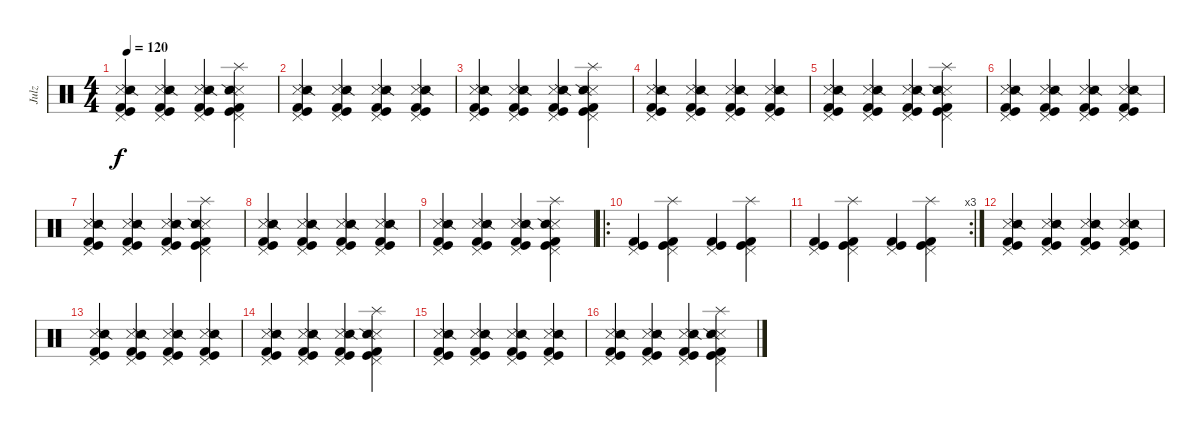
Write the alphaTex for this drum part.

\track ("Julz" "Julz") {instrument percussion}
\staff {score}
\articulation defaults
\ts (4 4)
\tempo 120
\clef neutral
\ks c
("Metronome (hit)" "Snare (side stick) 2" "Pedal Hi-Hat (hit)" "Kick (hit)" "Kick (hit) 2").4{dy f} ("Metronome (hit)" "Snare (side stick) 2" "Pedal Hi-Hat (hit)" "Kick (hit)" "Kick (hit) 2").4 ("Metronome (hit)" "Snare (side stick) 2" "Pedal Hi-Hat (hit)" "Kick (hit)" "Kick (hit) 2").4 ("Splash (hit)" "Metronome (hit)" "Snare (side stick) 2" "Pedal Hi-Hat (hit)" "Kick (hit)" "Kick (hit) 2").4 |
("Metronome (hit)" "Snare (side stick) 2" "Pedal Hi-Hat (hit)" "Kick (hit)" "Kick (hit) 2").4 ("Metronome (hit)" "Snare (side stick) 2" "Pedal Hi-Hat (hit)" "Kick (hit)" "Kick (hit) 2").4 ("Metronome (hit)" "Snare (side stick) 2" "Pedal Hi-Hat (hit)" "Kick (hit)" "Kick (hit) 2").4 ("Metronome (hit)" "Snare (side stick) 2" "Pedal Hi-Hat (hit)" "Kick (hit)" "Kick (hit) 2").4 |
("Metronome (hit)" "Snare (side stick) 2" "Pedal Hi-Hat (hit)" "Kick (hit)" "Kick (hit) 2").4 ("Metronome (hit)" "Snare (side stick) 2" "Pedal Hi-Hat (hit)" "Kick (hit)" "Kick (hit) 2").4 ("Metronome (hit)" "Snare (side stick) 2" "Pedal Hi-Hat (hit)" "Kick (hit)" "Kick (hit) 2").4 ("Splash (hit)" "Metronome (hit)" "Snare (side stick) 2" "Pedal Hi-Hat (hit)" "Kick (hit)" "Kick (hit) 2").4 |
("Metronome (hit)" "Snare (side stick) 2" "Pedal Hi-Hat (hit)" "Kick (hit)" "Kick (hit) 2").4 ("Metronome (hit)" "Snare (side stick) 2" "Pedal Hi-Hat (hit)" "Kick (hit)" "Kick (hit) 2").4 ("Metronome (hit)" "Snare (side stick) 2" "Pedal Hi-Hat (hit)" "Kick (hit)" "Kick (hit) 2").4 ("Metronome (hit)" "Snare (side stick) 2" "Pedal Hi-Hat (hit)" "Kick (hit)" "Kick (hit) 2").4 |
("Metronome (hit)" "Snare (side stick) 2" "Pedal Hi-Hat (hit)" "Kick (hit)" "Kick (hit) 2").4 ("Metronome (hit)" "Snare (side stick) 2" "Pedal Hi-Hat (hit)" "Kick (hit)" "Kick (hit) 2").4 ("Metronome (hit)" "Snare (side stick) 2" "Pedal Hi-Hat (hit)" "Kick (hit)" "Kick (hit) 2").4 ("Splash (hit)" "Metronome (hit)" "Snare (side stick) 2" "Pedal Hi-Hat (hit)" "Kick (hit)" "Kick (hit) 2").4 |
("Metronome (hit)" "Snare (side stick) 2" "Pedal Hi-Hat (hit)" "Kick (hit)" "Kick (hit) 2").4 ("Metronome (hit)" "Snare (side stick) 2" "Pedal Hi-Hat (hit)" "Kick (hit)" "Kick (hit) 2").4 ("Metronome (hit)" "Snare (side stick) 2" "Pedal Hi-Hat (hit)" "Kick (hit)" "Kick (hit) 2").4 ("Metronome (hit)" "Snare (side stick) 2" "Pedal Hi-Hat (hit)" "Kick (hit)" "Kick (hit) 2").4 |
("Metronome (hit)" "Snare (side stick) 2" "Pedal Hi-Hat (hit)" "Kick (hit)" "Kick (hit) 2").4 ("Metronome (hit)" "Snare (side stick) 2" "Pedal Hi-Hat (hit)" "Kick (hit)" "Kick (hit) 2").4 ("Metronome (hit)" "Snare (side stick) 2" "Pedal Hi-Hat (hit)" "Kick (hit)" "Kick (hit) 2").4 ("Splash (hit)" "Metronome (hit)" "Snare (side stick) 2" "Pedal Hi-Hat (hit)" "Kick (hit)" "Kick (hit) 2").4 |
("Metronome (hit)" "Snare (side stick) 2" "Pedal Hi-Hat (hit)" "Kick (hit)" "Kick (hit) 2").4 ("Metronome (hit)" "Snare (side stick) 2" "Pedal Hi-Hat (hit)" "Kick (hit)" "Kick (hit) 2").4 ("Metronome (hit)" "Snare (side stick) 2" "Pedal Hi-Hat (hit)" "Kick (hit)" "Kick (hit) 2").4 ("Metronome (hit)" "Snare (side stick) 2" "Pedal Hi-Hat (hit)" "Kick (hit)" "Kick (hit) 2").4 |
("Metronome (hit)" "Snare (side stick) 2" "Pedal Hi-Hat (hit)" "Kick (hit)" "Kick (hit) 2").4 ("Metronome (hit)" "Snare (side stick) 2" "Pedal Hi-Hat (hit)" "Kick (hit)" "Kick (hit) 2").4 ("Metronome (hit)" "Snare (side stick) 2" "Pedal Hi-Hat (hit)" "Kick (hit)" "Kick (hit) 2").4 ("Splash (hit)" "Metronome (hit)" "Snare (side stick) 2" "Pedal Hi-Hat (hit)" "Kick (hit)" "Kick (hit) 2").4 |
\ro
("Pedal Hi-Hat (hit)" "Kick (hit)" "Kick (hit) 2").4 ("Splash (hit)" "Pedal Hi-Hat (hit)" "Kick (hit)" "Kick (hit) 2").4 ("Pedal Hi-Hat (hit)" "Kick (hit)" "Kick (hit) 2").4 ("Splash (hit)" "Pedal Hi-Hat (hit)" "Kick (hit)" "Kick (hit) 2").4 |
\rc 3
("Pedal Hi-Hat (hit)" "Kick (hit)" "Kick (hit) 2").4 ("Splash (hit)" "Pedal Hi-Hat (hit)" "Kick (hit)" "Kick (hit) 2").4 ("Pedal Hi-Hat (hit)" "Kick (hit)" "Kick (hit) 2").4 ("Splash (hit)" "Pedal Hi-Hat (hit)" "Kick (hit)" "Kick (hit) 2").4 |
("Metronome (hit)" "Snare (side stick) 2" "Pedal Hi-Hat (hit)" "Kick (hit)" "Kick (hit) 2").4 ("Metronome (hit)" "Snare (side stick) 2" "Pedal Hi-Hat (hit)" "Kick (hit)" "Kick (hit) 2").4 ("Metronome (hit)" "Snare (side stick) 2" "Pedal Hi-Hat (hit)" "Kick (hit)" "Kick (hit) 2").4 ("Metronome (hit)" "Snare (side stick) 2" "Pedal Hi-Hat (hit)" "Kick (hit)" "Kick (hit) 2").4 |
("Metronome (hit)" "Snare (side stick) 2" "Pedal Hi-Hat (hit)" "Kick (hit)" "Kick (hit) 2").4 ("Metronome (hit)" "Snare (side stick) 2" "Pedal Hi-Hat (hit)" "Kick (hit)" "Kick (hit) 2").4 ("Metronome (hit)" "Snare (side stick) 2" "Pedal Hi-Hat (hit)" "Kick (hit)" "Kick (hit) 2").4 ("Metronome (hit)" "Snare (side stick) 2" "Pedal Hi-Hat (hit)" "Kick (hit)" "Kick (hit) 2").4 |
("Metronome (hit)" "Snare (side stick) 2" "Pedal Hi-Hat (hit)" "Kick (hit)" "Kick (hit) 2").4 ("Metronome (hit)" "Snare (side stick) 2" "Pedal Hi-Hat (hit)" "Kick (hit)" "Kick (hit) 2").4 ("Metronome (hit)" "Snare (side stick) 2" "Pedal Hi-Hat (hit)" "Kick (hit)" "Kick (hit) 2").4 ("Splash (hit)" "Metronome (hit)" "Snare (side stick) 2" "Pedal Hi-Hat (hit)" "Kick (hit)" "Kick (hit) 2").4 |
("Metronome (hit)" "Snare (side stick) 2" "Pedal Hi-Hat (hit)" "Kick (hit)" "Kick (hit) 2").4 ("Metronome (hit)" "Snare (side stick) 2" "Pedal Hi-Hat (hit)" "Kick (hit)" "Kick (hit) 2").4 ("Metronome (hit)" "Snare (side stick) 2" "Pedal Hi-Hat (hit)" "Kick (hit)" "Kick (hit) 2").4 ("Metronome (hit)" "Snare (side stick) 2" "Pedal Hi-Hat (hit)" "Kick (hit)" "Kick (hit) 2").4 |
("Metronome (hit)" "Snare (side stick) 2" "Pedal Hi-Hat (hit)" "Kick (hit)" "Kick (hit) 2").4 ("Metronome (hit)" "Snare (side stick) 2" "Pedal Hi-Hat (hit)" "Kick (hit)" "Kick (hit) 2").4 ("Metronome (hit)" "Snare (side stick) 2" "Pedal Hi-Hat (hit)" "Kick (hit)" "Kick (hit) 2").4 ("Splash (hit)" "Metronome (hit)" "Snare (side stick) 2" "Pedal Hi-Hat (hit)" "Kick (hit)" "Kick (hit) 2").4
